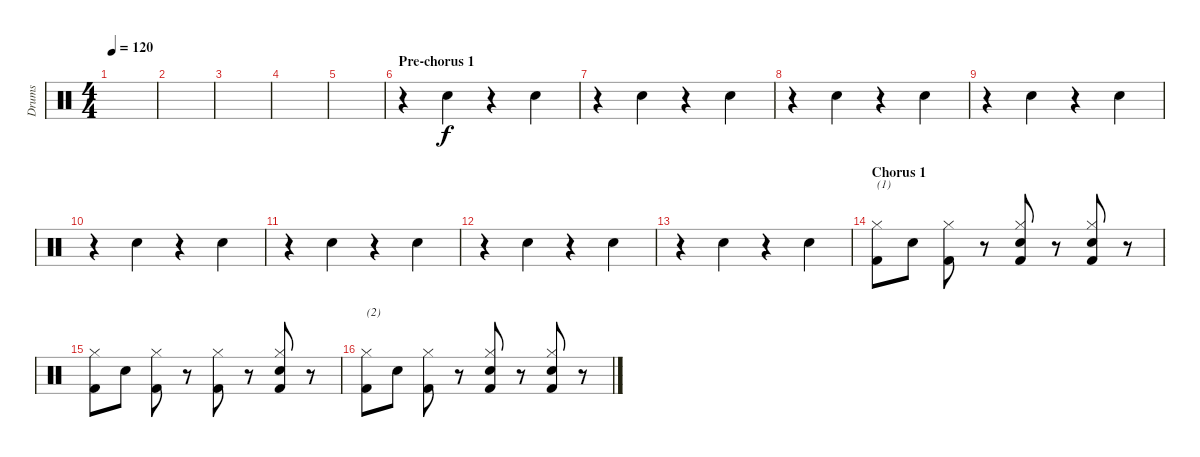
\track ("Drums" "Drums") {instrument percussion}
\staff {score}
\articulation defaults
\ts (4 4)
\tempo 120
\clef neutral
\ks c
|
|
|
|
|
\section ("" "Pre-chorus 1")
r.4 "Snare (hit) 2".4 r.4 "Snare (hit) 2".4 |
r.4 "Snare (hit) 2".4 r.4 "Snare (hit) 2".4 |
r.4 "Snare (hit) 2".4 r.4 "Snare (hit) 2".4 |
r.4 "Snare (hit) 2".4 r.4 "Snare (hit) 2".4 |
r.4 "Snare (hit) 2".4 r.4 "Snare (hit) 2".4 |
r.4 "Snare (hit) 2".4 r.4 "Snare (hit) 2".4 |
r.4 "Snare (hit) 2".4 r.4 "Snare (hit) 2".4 |
r.4 "Snare (hit) 2".4 r.4 "Snare (hit) 2".4 |
\section ("" "Chorus 1")
("Hi-Hat (closed)" "Kick (hit) 2").8{txt "(1)"} "Snare (hit) 2".8 ("Hi-Hat (closed)" "Kick (hit) 2").8 r.8 ("Hi-Hat (closed)" "Snare (hit) 2" "Kick (hit) 2").8 r.8 ("Hi-Hat (closed)" "Snare (hit) 2" "Kick (hit) 2").8 r.8 |
("Hi-Hat (closed)" "Kick (hit) 2").8 "Snare (hit) 2".8 ("Hi-Hat (closed)" "Kick (hit) 2").8 r.8 ("Hi-Hat (closed)" "Kick (hit) 2").8 r.8 ("Hi-Hat (closed)" "Snare (hit) 2" "Kick (hit) 2").8 r.8 |
("Hi-Hat (closed)" "Kick (hit) 2").8{txt "(2)"} "Snare (hit) 2".8 ("Hi-Hat (closed)" "Kick (hit) 2").8 r.8 ("Hi-Hat (closed)" "Snare (hit) 2" "Kick (hit) 2").8 r.8 ("Hi-Hat (closed)" "Snare (hit) 2" "Kick (hit) 2").8 r.8
